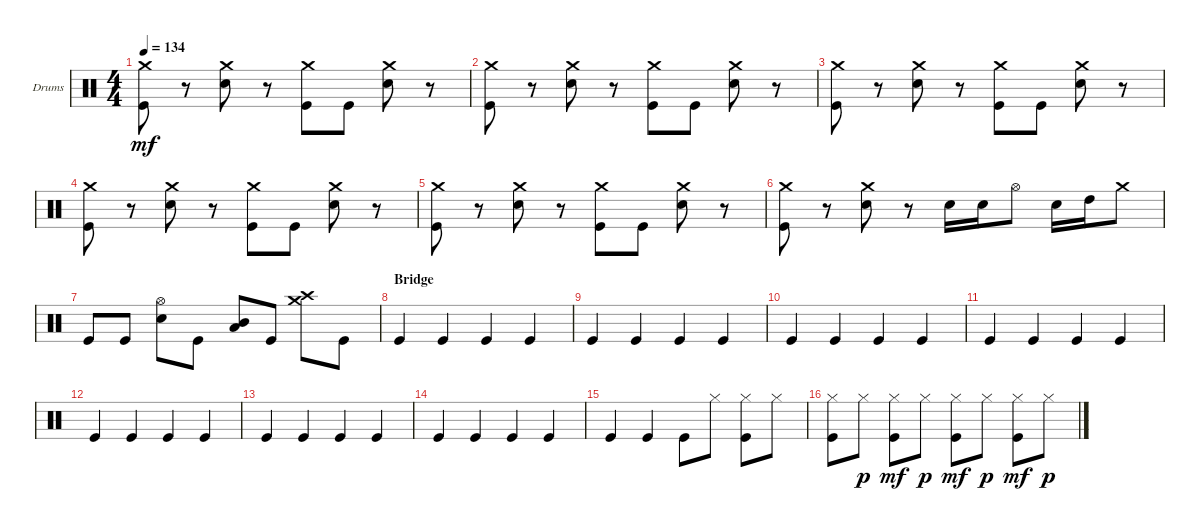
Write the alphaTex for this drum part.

\defaultSystemsLayout 4
\bracketExtendMode groupsimilarinstruments
\firstSystemTrackNameOrientation horizontal
\otherSystemsTrackNameOrientation horizontal
\track ("Drums" "Drums") {instrument percussion}
\staff {score}
\articulation defaults
\ts (4 4)
\tempo 134
\clef neutral
\ks c
("Kick (hit)" "Crash medium (hit)").8{dy mf} r.8 ("Snare (hit) 2" "Crash medium (hit)").8 r.8 ("Kick (hit)" "Crash medium (hit)").8 "Kick (hit)".8 ("Snare (hit) 2" "Crash medium (hit)").8 r.8 |
("Kick (hit)" "Crash medium (hit)").8 r.8 ("Snare (hit) 2" "Crash medium (hit)").8 r.8 ("Kick (hit)" "Crash medium (hit)").8 "Kick (hit)".8 ("Snare (hit) 2" "Crash medium (hit)").8 r.8 |
("Kick (hit)" "Crash medium (hit)").8 r.8 ("Snare (hit) 2" "Crash medium (hit)").8 r.8 ("Kick (hit)" "Crash medium (hit)").8 "Kick (hit)".8 ("Snare (hit) 2" "Crash medium (hit)").8 r.8 |
("Kick (hit)" "Crash medium (hit)").8 r.8 ("Snare (hit) 2" "Crash medium (hit)").8 r.8 ("Kick (hit)" "Crash medium (hit)").8 "Kick (hit)".8 ("Snare (hit) 2" "Crash medium (hit)").8 r.8 |
("Kick (hit)" "Crash medium (hit)").8 r.8 ("Snare (hit) 2" "Crash medium (hit)").8 r.8 ("Kick (hit)" "Crash medium (hit)").8 "Kick (hit)".8 ("Snare (hit) 2" "Crash medium (hit)").8 r.8 |
("Kick (hit)" "Crash medium (hit)").8 r.8 ("Snare (hit) 2" "Crash medium (hit)").8 r.8 "Snare (hit) 2".16 "Snare (hit) 2".16 "Hi-Hat (open)".8 "Snare (hit) 2".16 "High Tom (hit)".16 "Crash medium (hit)".8 |
"Kick (hit)".8 "Kick (hit)".8 ("Snare (hit) 2" "Hi-Hat (open)").8 "Kick (hit)".8 ("Low Tom (hit)" "Mid Tom (hit)").8 "Kick (hit)".8 ("Crash medium (hit)" "Crash high (hit)").8 "Kick (hit)".8 |
\section ("" "Bridge")
"Kick (hit)".4 "Kick (hit)".4 "Kick (hit)".4 "Kick (hit)".4 |
"Kick (hit)".4 "Kick (hit)".4 "Kick (hit)".4 "Kick (hit)".4 |
"Kick (hit)".4 "Kick (hit)".4 "Kick (hit)".4 "Kick (hit)".4 |
"Kick (hit)".4 "Kick (hit)".4 "Kick (hit)".4 "Kick (hit)".4 |
"Kick (hit)".4 "Kick (hit)".4 "Kick (hit)".4 "Kick (hit)".4 |
"Kick (hit)".4 "Kick (hit)".4 "Kick (hit)".4 "Kick (hit)".4 |
"Kick (hit)".4 "Kick (hit)".4 "Kick (hit)".4 "Kick (hit)".4 |
"Kick (hit)".4 "Kick (hit)".4 "Kick (hit)".8 "Hi-Hat (closed)".8 ("Kick (hit)" "Hi-Hat (closed)").8 "Hi-Hat (closed)".8 |
("Kick (hit)" "Hi-Hat (closed)").8 "Hi-Hat (closed)".8{dy p} ("Kick (hit)" "Hi-Hat (closed)").8{dy mf} "Hi-Hat (closed)".8{dy p} ("Kick (hit)" "Hi-Hat (closed)").8{dy mf} "Hi-Hat (closed)".8{dy p} ("Kick (hit)" "Hi-Hat (closed)").8{dy mf} "Hi-Hat (closed)".8{dy p}
